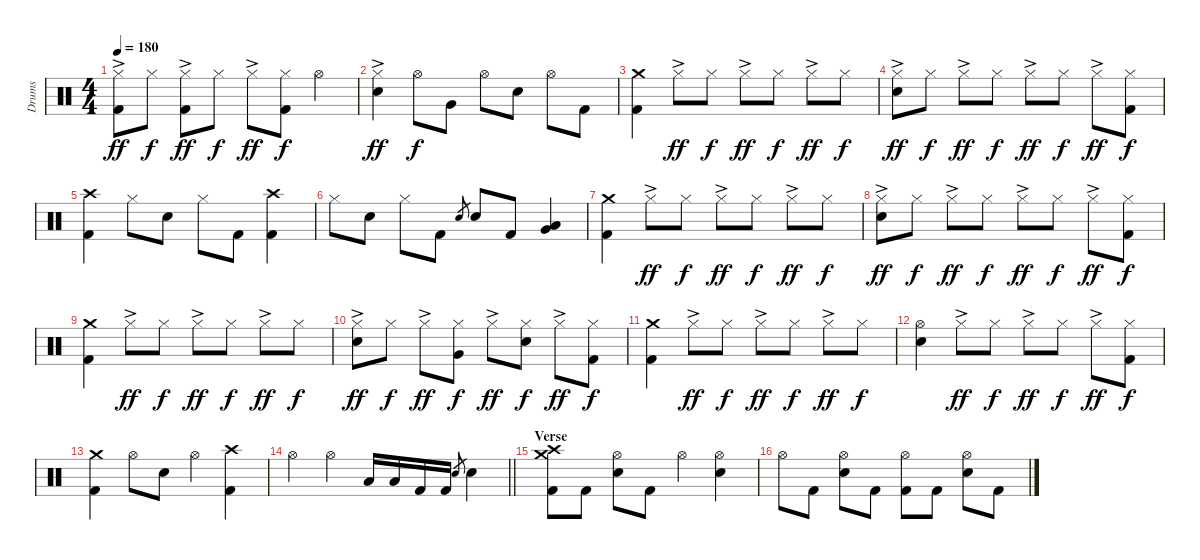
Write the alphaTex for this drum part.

\track ("Drums" "Drums") {instrument percussion}
\staff {score}
\articulation defaults
\ts (4 4)
\tempo 180
\clef neutral
\ks c
("Hi-Hat (closed)"{ac} "Kick (hit) 2").8{dy ff} "Hi-Hat (closed)".8{dy f} ("Hi-Hat (closed)"{ac} "Kick (hit) 2").8{dy ff} "Hi-Hat (closed)".8{dy f} "Hi-Hat (closed)"{ac}.8{dy ff} ("Hi-Hat (closed)" "Kick (hit) 2").8{dy f} "Hi-Hat (open)".4 |
("Hi-Hat (closed)"{ac} "Electric Snare (hit)").4{dy ff} "Hi-Hat (open)".8{dy f} "Very Low Tom (hit)".8 "Hi-Hat (open)".8 "Electric Snare (hit)".8 "Hi-Hat (open)".8 "Kick (hit) 2".8 |
("Crash medium (hit)" "Kick (hit) 2").4 "Hi-Hat (closed)"{ac}.8{dy ff} "Hi-Hat (closed)".8{dy f} "Hi-Hat (closed)"{ac}.8{dy ff} "Hi-Hat (closed)".8{dy f} "Hi-Hat (closed)"{ac}.8{dy ff} "Hi-Hat (closed)".8{dy f} |
("Hi-Hat (closed)"{ac} "Electric Snare (hit)").8{dy ff} "Hi-Hat (closed)".8{dy f} "Hi-Hat (closed)"{ac}.8{dy ff} "Hi-Hat (closed)".8{dy f} "Hi-Hat (closed)"{ac}.8{dy ff} "Hi-Hat (closed)".8{dy f} "Hi-Hat (closed)"{ac}.8{dy ff} ("Hi-Hat (closed)" "Kick (hit) 2").8{dy f} |
("Crash high (hit)" "Kick (hit) 2").4 "Hi-Hat (closed)".8 "Electric Snare (hit)".8 "Hi-Hat (closed)".8 "Kick (hit) 2".8 ("Crash high (hit)" "Kick (hit) 2").4 |
"Hi-Hat (closed)".8 "Electric Snare (hit)".8 "Hi-Hat (closed)".8 "Kick (hit) 2".8 "Electric Snare (hit)".8{gr} "Electric Snare (hit)".8 "Kick (hit) 2".8 ("Very Low Tom (hit)" "Low Floor Tom (hit)").4 |
("Crash medium (hit)" "Kick (hit) 2").4 "Hi-Hat (closed)"{ac}.8{dy ff} "Hi-Hat (closed)".8{dy f} "Hi-Hat (closed)"{ac}.8{dy ff} "Hi-Hat (closed)".8{dy f} "Hi-Hat (closed)"{ac}.8{dy ff} "Hi-Hat (closed)".8{dy f} |
("Hi-Hat (closed)"{ac} "Electric Snare (hit)").8{dy ff} "Hi-Hat (closed)".8{dy f} "Hi-Hat (closed)"{ac}.8{dy ff} "Hi-Hat (closed)".8{dy f} "Hi-Hat (closed)"{ac}.8{dy ff} "Hi-Hat (closed)".8{dy f} "Hi-Hat (closed)"{ac}.8{dy ff} ("Hi-Hat (closed)" "Kick (hit) 2").8{dy f} |
("Crash medium (hit)" "Kick (hit) 2").4 "Hi-Hat (closed)"{ac}.8{dy ff} "Hi-Hat (closed)".8{dy f} "Hi-Hat (closed)"{ac}.8{dy ff} "Hi-Hat (closed)".8{dy f} "Hi-Hat (closed)"{ac}.8{dy ff} "Hi-Hat (closed)".8{dy f} |
("Hi-Hat (closed)"{ac} "Electric Snare (hit)").8{dy ff} "Hi-Hat (closed)".8{dy f} "Hi-Hat (closed)"{ac}.8{dy ff} ("Hi-Hat (closed)" "Very Low Tom (hit)").8{dy f} "Hi-Hat (closed)"{ac}.8{dy ff} ("Hi-Hat (closed)" "Electric Snare (hit)").8{dy f} "Hi-Hat (closed)"{ac}.8{dy ff} ("Hi-Hat (closed)" "Kick (hit) 2").8{dy f} |
("Crash medium (hit)" "Kick (hit) 2").4 "Hi-Hat (closed)"{ac}.8{dy ff} "Hi-Hat (closed)".8{dy f} "Hi-Hat (closed)"{ac}.8{dy ff} "Hi-Hat (closed)".8{dy f} "Hi-Hat (closed)"{ac}.8{dy ff} "Hi-Hat (closed)".8{dy f} |
("Hi-Hat (open)" "Electric Snare (hit)").4 "Hi-Hat (closed)"{ac}.8{dy ff} "Hi-Hat (closed)".8{dy f} "Hi-Hat (closed)"{ac}.8{dy ff} "Hi-Hat (closed)".8{dy f} "Hi-Hat (closed)"{ac}.8{dy ff} ("Hi-Hat (closed)" "Kick (hit) 2").8{dy f} |
("Crash medium (hit)" "Kick (hit) 2").4 "Hi-Hat (open)".8 "Electric Snare (hit)".8 "Hi-Hat (open)".4 ("Crash high (hit)" "Kick (hit) 2").4 |
\barLineRight lightlight "Hi-Hat (open)".4 "Hi-Hat (open)".4 "Low Tom (hit)".16 "Low Tom (hit)".16 "Kick (hit) 2".16 "Kick (hit) 2".16 "Electric Snare (hit)".8{gr} "Electric Snare (hit)".4
|
\section ("" "Verse")
("Crash medium (hit)" "Crash high (hit)" "Kick (hit) 2").8 "Kick (hit) 2".8 ("Hi-Hat (open)" "Electric Snare (hit)").8 "Kick (hit) 2".8 "Hi-Hat (open)".4 ("Hi-Hat (open)" "Electric Snare (hit)").4 |
"Hi-Hat (open)".8 "Kick (hit) 2".8 ("Hi-Hat (open)" "Electric Snare (hit)").8 "Kick (hit) 2".8 ("Hi-Hat (open)" "Kick (hit) 2").8 "Kick (hit) 2".8 ("Hi-Hat (open)" "Electric Snare (hit)").8 "Kick (hit) 2".8
